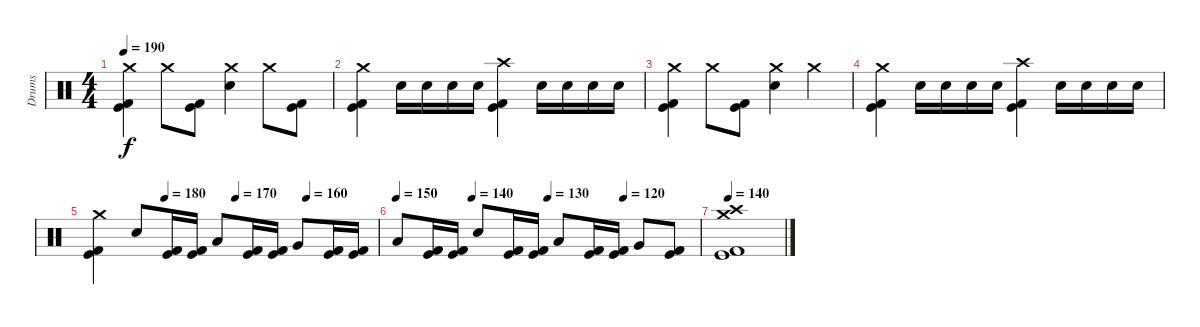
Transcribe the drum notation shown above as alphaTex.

\track ("Drums" "Drums") {instrument percussion}
\staff {score}
\articulation defaults
\ts (4 4)
\tempo 190
\clef neutral
\ks c
("Crash medium (hit)" "Kick (hit)" "Kick (hit) 2").4{dy f} "Crash medium (hit)".8 ("Kick (hit)" "Kick (hit) 2").8 ("Crash medium (hit)" "Electric Snare (hit)").4 "Crash medium (hit)".8 ("Kick (hit)" "Kick (hit) 2").8 |
("Crash medium (hit)" "Kick (hit)" "Kick (hit) 2").4 "Electric Snare (hit)".16 "Electric Snare (hit)".16 "Electric Snare (hit)".16 "Electric Snare (hit)".16 ("Crash high (hit)" "Kick (hit)" "Kick (hit) 2").4 "Electric Snare (hit)".16 "Electric Snare (hit)".16 "Electric Snare (hit)".16 "Electric Snare (hit)".16 |
("Crash medium (hit)" "Kick (hit)" "Kick (hit) 2").4 "Crash medium (hit)".8 ("Kick (hit)" "Kick (hit) 2").8 ("Crash medium (hit)" "Electric Snare (hit)").4 "Crash medium (hit)".4 |
("Crash medium (hit)" "Kick (hit)" "Kick (hit) 2").4 "Electric Snare (hit)".16 "Electric Snare (hit)".16 "Electric Snare (hit)".16 "Electric Snare (hit)".16 ("Crash high (hit)" "Kick (hit)" "Kick (hit) 2").4 "Electric Snare (hit)".16 "Electric Snare (hit)".16 "Electric Snare (hit)".16 "Electric Snare (hit)".16 |
\tempo (180 0.25)
\tempo (170 0.5)
\tempo (160 0.75)
("Crash medium (hit)" "Kick (hit)" "Kick (hit) 2").4 "Electric Snare (hit)".8 ("Kick (hit)" "Kick (hit) 2").16 ("Kick (hit)" "Kick (hit) 2").16 "Low Tom (hit)".8 ("Kick (hit)" "Kick (hit) 2").16 ("Kick (hit)" "Kick (hit) 2").16 "Very Low Tom (hit)".8 ("Kick (hit)" "Kick (hit) 2").16 ("Kick (hit)" "Kick (hit) 2").16 |
\tempo 150
\tempo (140 0.25)
\tempo (130 0.5)
\tempo (120 0.75)
"Low Floor Tom (hit)".8 ("Kick (hit)" "Kick (hit) 2").16 ("Kick (hit)" "Kick (hit) 2").16 "Electric Snare (hit)".8 ("Kick (hit)" "Kick (hit) 2").16 ("Kick (hit)" "Kick (hit) 2").16 "Low Tom (hit)".8 ("Kick (hit)" "Kick (hit) 2").16 ("Kick (hit)" "Kick (hit) 2").16 "Very Low Tom (hit)".8 ("Kick (hit)" "Kick (hit) 2").8 |
\tempo 140
("Crash high (hit)" "Crash medium (hit)" "Kick (hit)" "Kick (hit) 2").1
